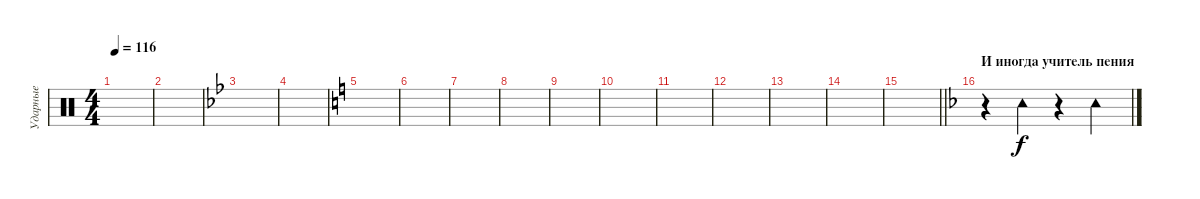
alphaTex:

\track ("Ударные" "Ударные") {instrument percussion}
\staff {score}
\articulation defaults
\ts (4 4)
\tempo 116
\clef neutral
\ks c
|
|
\ks bb
|
|
\ks c
|
|
|
|
|
|
|
|
|
|
\barLineRight lightlight
|
\section ("" "И иногда учитель пения")
\ks dminor
r.4 "Tambourine (hit)".4 r.4 "Tambourine (hit)".4
